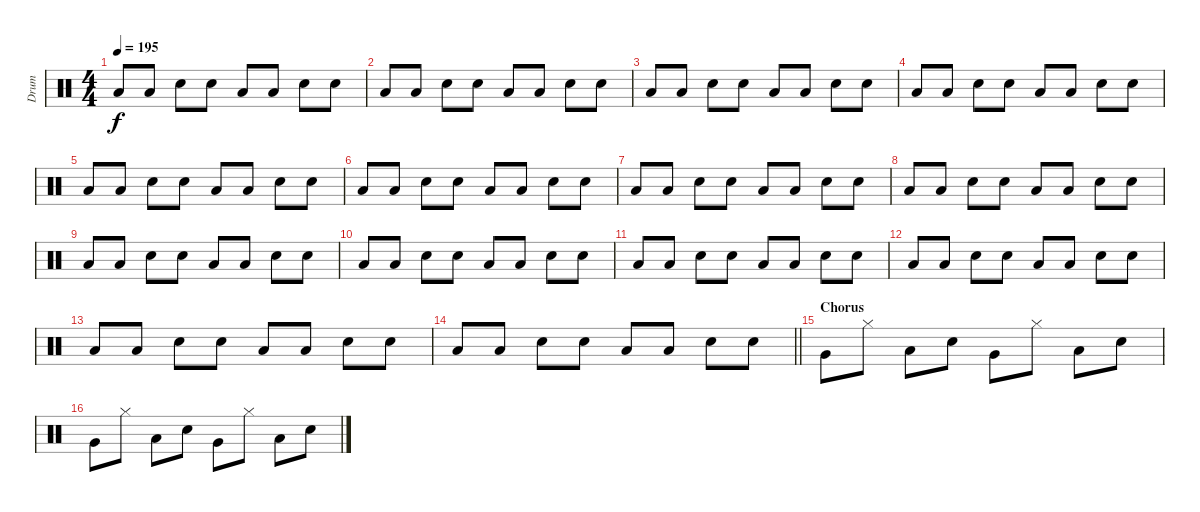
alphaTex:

\track ("Drum" "Drum") {instrument percussion}
\staff {score}
\articulation defaults
\ts (4 4)
\tempo 195
\clef neutral
\ks c "Low Floor Tom (hit)".8{dy f} "Low Floor Tom (hit)".8 "Electric Snare (hit)".8 "Electric Snare (hit)".8 "Low Floor Tom (hit)".8 "Low Floor Tom (hit)".8 "Electric Snare (hit)".8 "Electric Snare (hit)".8
|
"Low Floor Tom (hit)".8 "Low Floor Tom (hit)".8 "Electric Snare (hit)".8 "Electric Snare (hit)".8 "Low Floor Tom (hit)".8 "Low Floor Tom (hit)".8 "Electric Snare (hit)".8 "Electric Snare (hit)".8 |
"Low Floor Tom (hit)".8 "Low Floor Tom (hit)".8 "Electric Snare (hit)".8 "Electric Snare (hit)".8 "Low Floor Tom (hit)".8 "Low Floor Tom (hit)".8 "Electric Snare (hit)".8 "Electric Snare (hit)".8 |
"Low Floor Tom (hit)".8 "Low Floor Tom (hit)".8 "Electric Snare (hit)".8 "Electric Snare (hit)".8 "Low Floor Tom (hit)".8 "Low Floor Tom (hit)".8 "Electric Snare (hit)".8 "Electric Snare (hit)".8 |
"Low Floor Tom (hit)".8 "Low Floor Tom (hit)".8 "Electric Snare (hit)".8 "Electric Snare (hit)".8 "Low Floor Tom (hit)".8 "Low Floor Tom (hit)".8 "Electric Snare (hit)".8 "Electric Snare (hit)".8 |
"Low Floor Tom (hit)".8 "Low Floor Tom (hit)".8 "Electric Snare (hit)".8 "Electric Snare (hit)".8 "Low Floor Tom (hit)".8 "Low Floor Tom (hit)".8 "Electric Snare (hit)".8 "Electric Snare (hit)".8 |
"Low Floor Tom (hit)".8 "Low Floor Tom (hit)".8 "Electric Snare (hit)".8 "Electric Snare (hit)".8 "Low Floor Tom (hit)".8 "Low Floor Tom (hit)".8 "Electric Snare (hit)".8 "Electric Snare (hit)".8 |
"Low Floor Tom (hit)".8 "Low Floor Tom (hit)".8 "Electric Snare (hit)".8 "Electric Snare (hit)".8 "Low Floor Tom (hit)".8 "Low Floor Tom (hit)".8 "Electric Snare (hit)".8 "Electric Snare (hit)".8 |
"Low Floor Tom (hit)".8 "Low Floor Tom (hit)".8 "Electric Snare (hit)".8 "Electric Snare (hit)".8 "Low Floor Tom (hit)".8 "Low Floor Tom (hit)".8 "Electric Snare (hit)".8 "Electric Snare (hit)".8 |
"Low Floor Tom (hit)".8 "Low Floor Tom (hit)".8 "Electric Snare (hit)".8 "Electric Snare (hit)".8 "Low Floor Tom (hit)".8 "Low Floor Tom (hit)".8 "Electric Snare (hit)".8 "Electric Snare (hit)".8 |
"Low Floor Tom (hit)".8 "Low Floor Tom (hit)".8 "Electric Snare (hit)".8 "Electric Snare (hit)".8 "Low Floor Tom (hit)".8 "Low Floor Tom (hit)".8 "Electric Snare (hit)".8 "Electric Snare (hit)".8 |
"Low Floor Tom (hit)".8 "Low Floor Tom (hit)".8 "Electric Snare (hit)".8 "Electric Snare (hit)".8 "Low Floor Tom (hit)".8 "Low Floor Tom (hit)".8 "Electric Snare (hit)".8 "Electric Snare (hit)".8 |
"Low Floor Tom (hit)".8 "Low Floor Tom (hit)".8 "Electric Snare (hit)".8 "Electric Snare (hit)".8 "Low Floor Tom (hit)".8 "Low Floor Tom (hit)".8 "Electric Snare (hit)".8 "Electric Snare (hit)".8 |
\barLineRight lightlight "Low Floor Tom (hit)".8 "Low Floor Tom (hit)".8 "Electric Snare (hit)".8 "Electric Snare (hit)".8 "Low Floor Tom (hit)".8 "Low Floor Tom (hit)".8 "Electric Snare (hit)".8 "Electric Snare (hit)".8
|
\section ("" "Chorus")
"Very Low Tom (hit)".8 "Hi-Hat (closed)".8 "Low Floor Tom (hit)".8 "Electric Snare (hit)".8 "Very Low Tom (hit)".8 "Hi-Hat (closed)".8 "Low Floor Tom (hit)".8 "Electric Snare (hit)".8 |
"Very Low Tom (hit)".8 "Hi-Hat (closed)".8 "Low Floor Tom (hit)".8 "Electric Snare (hit)".8 "Very Low Tom (hit)".8 "Hi-Hat (closed)".8 "Low Floor Tom (hit)".8 "Electric Snare (hit)".8
